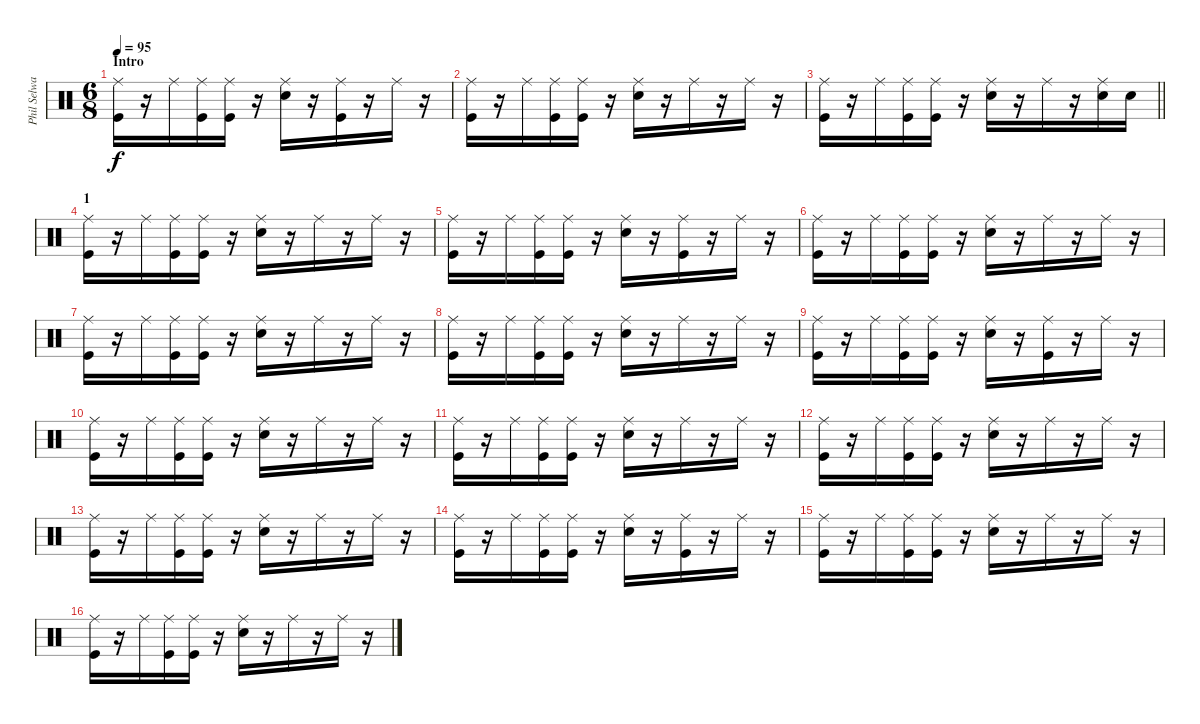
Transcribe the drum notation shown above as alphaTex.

\track ("Phil Selway (Percussions)" "Phil Selwa") {instrument percussion}
\staff {score}
\articulation defaults
\ts (6 8)
\section ("" "Intro")
\tempo 95
\clef neutral
\ks c
("Ride (middle)" "Kick (hit)").16{dy f} r.16 "Ride (middle)".16 ("Ride (middle)" "Kick (hit)").16 ("Ride (middle)" "Kick (hit)").16 r.16 ("Ride (middle)" "Electric Snare (hit)").16 r.16 ("Ride (middle)" "Kick (hit)").16 r.16 "Ride (middle)".16 r.16 |
("Ride (middle)" "Kick (hit)").16 r.16 "Ride (middle)".16 ("Ride (middle)" "Kick (hit)").16 ("Ride (middle)" "Kick (hit)").16 r.16 ("Ride (middle)" "Electric Snare (hit)"{tr (38 32)}).16 r.16 "Ride (middle)".16 r.16 "Ride (middle)".16 r.16 |
\barLineRight lightlight
("Ride (middle)" "Kick (hit)").16 r.16 "Ride (middle)".16 ("Ride (middle)" "Kick (hit)").16 ("Ride (middle)" "Kick (hit)").16 r.16 ("Ride (middle)" "Electric Snare (hit)").16 r.16 "Ride (middle)".16 r.16 ("Ride (middle)" "Electric Snare (hit)").16 "Electric Snare (hit)".16 |
\section ("" "1")
("Ride (middle)" "Kick (hit)").16 r.16 "Ride (middle)".16 ("Ride (middle)" "Kick (hit)").16 ("Ride (middle)" "Kick (hit)").16 r.16 ("Ride (middle)" "Electric Snare (hit)").16 r.16 "Ride (middle)".16 r.16 "Ride (middle)".16 r.16 |
("Ride (middle)" "Kick (hit)").16 r.16 "Ride (middle)".16 ("Ride (middle)" "Kick (hit)").16 ("Ride (middle)" "Kick (hit)").16 r.16 ("Ride (middle)" "Electric Snare (hit)").16 r.16 ("Ride (middle)" "Kick (hit)").16 r.16 "Ride (middle)".16 r.16 |
("Ride (middle)" "Kick (hit)").16 r.16 "Ride (middle)".16 ("Ride (middle)" "Kick (hit)").16 ("Ride (middle)" "Kick (hit)").16 r.16 ("Ride (middle)" "Electric Snare (hit)").16 r.16 "Ride (middle)".16 r.16 "Ride (middle)".16 r.16 |
("Ride (middle)" "Kick (hit)").16 r.16 "Ride (middle)".16 ("Ride (middle)" "Kick (hit)").16 ("Ride (middle)" "Kick (hit)").16 r.16 ("Ride (middle)" "Electric Snare (hit)").16 r.16 "Ride (middle)".16 r.16 "Ride (middle)".16 r.16 |
("Ride (middle)" "Kick (hit)").16 r.16 "Ride (middle)".16 ("Ride (middle)" "Kick (hit)").16 ("Ride (middle)" "Kick (hit)").16 r.16 ("Ride (middle)" "Electric Snare (hit)").16 r.16 "Ride (middle)".16 r.16 "Ride (middle)".16 r.16 |
("Ride (middle)" "Kick (hit)").16 r.16 "Ride (middle)".16 ("Ride (middle)" "Kick (hit)").16 ("Ride (middle)" "Kick (hit)").16 r.16 ("Ride (middle)" "Electric Snare (hit)").16 r.16 ("Ride (middle)" "Kick (hit)").16 r.16 "Ride (middle)".16 r.16 |
("Ride (middle)" "Kick (hit)").16 r.16 "Ride (middle)".16 ("Ride (middle)" "Kick (hit)").16 ("Ride (middle)" "Kick (hit)").16 r.16 ("Ride (middle)" "Electric Snare (hit)").16 r.16 "Ride (middle)".16 r.16 "Ride (middle)".16 r.16 |
("Ride (middle)" "Kick (hit)").16 r.16 "Ride (middle)".16 ("Ride (middle)" "Kick (hit)").16 ("Ride (middle)" "Kick (hit)").16 r.16 ("Ride (middle)" "Electric Snare (hit)").16 r.16 "Ride (middle)".16 r.16 "Ride (middle)".16 r.16 |
("Ride (middle)" "Kick (hit)").16 r.16 "Ride (middle)".16 ("Ride (middle)" "Kick (hit)").16 ("Ride (middle)" "Kick (hit)").16 r.16 ("Ride (middle)" "Electric Snare (hit)").16 r.16 "Ride (middle)".16 r.16 "Ride (middle)".16 r.16 |
("Ride (middle)" "Kick (hit)").16 r.16 "Ride (middle)".16 ("Ride (middle)" "Kick (hit)").16 ("Ride (middle)" "Kick (hit)").16 r.16 ("Ride (middle)" "Electric Snare (hit)").16 r.16 "Ride (middle)".16 r.16 "Ride (middle)".16 r.16 |
("Ride (middle)" "Kick (hit)").16 r.16 "Ride (middle)".16 ("Ride (middle)" "Kick (hit)").16 ("Ride (middle)" "Kick (hit)").16 r.16 ("Ride (middle)" "Electric Snare (hit)").16 r.16 ("Ride (middle)" "Kick (hit)").16 r.16 "Ride (middle)".16 r.16 |
("Ride (middle)" "Kick (hit)").16 r.16 "Ride (middle)".16 ("Ride (middle)" "Kick (hit)").16 ("Ride (middle)" "Kick (hit)").16 r.16 ("Ride (middle)" "Electric Snare (hit)").16 r.16 "Ride (middle)".16 r.16 "Ride (middle)".16 r.16 |
("Ride (middle)" "Kick (hit)").16 r.16 "Ride (middle)".16 ("Ride (middle)" "Kick (hit)").16 ("Ride (middle)" "Kick (hit)").16 r.16 ("Ride (middle)" "Electric Snare (hit)").16 r.16 "Ride (middle)".16 r.16 "Ride (middle)".16 r.16
